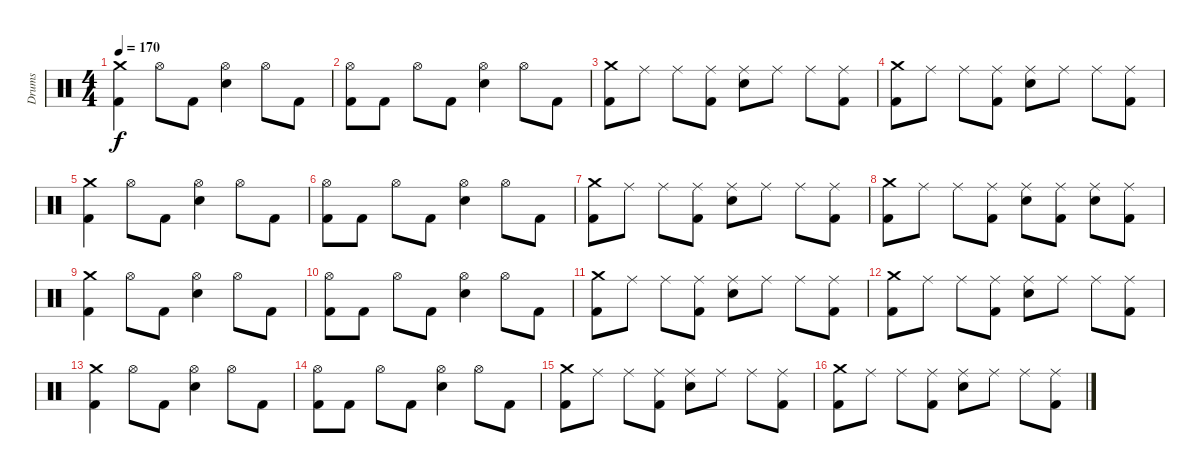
\track ("Drums" "Drums") {instrument percussion bank 255}
\staff {score}
\articulation defaults
\ts (4 4)
\tempo 170
\clef neutral
\ks c
("Crash medium (hit)" "Kick (hit) 2").4{dy f} "Hi-Hat (open)".8 "Kick (hit) 2".8 ("Hi-Hat (open)" "Electric Snare (hit)").4 "Hi-Hat (open)".8 "Kick (hit) 2".8 |
("Hi-Hat (open)" "Kick (hit) 2").8 "Kick (hit) 2".8 "Hi-Hat (open)".8 "Kick (hit) 2".8 ("Hi-Hat (open)" "Electric Snare (hit)").4 "Hi-Hat (open)".8 "Kick (hit) 2".8 |
("Crash medium (hit)" "Kick (hit) 2").8 "Ride (middle)".8 "Ride (middle)".8 ("Ride (middle)" "Kick (hit) 2").8 ("Ride (middle)" "Electric Snare (hit)").8 "Ride (middle)".8 "Ride (middle)".8 ("Ride (middle)" "Kick (hit) 2").8 |
("Crash medium (hit)" "Kick (hit) 2").8 "Ride (middle)".8 "Ride (middle)".8 ("Ride (middle)" "Kick (hit) 2").8 ("Ride (middle)" "Electric Snare (hit)").8 "Ride (middle)".8 "Ride (middle)".8 ("Ride (middle)" "Kick (hit) 2").8 |
("Crash medium (hit)" "Kick (hit) 2").4 "Hi-Hat (open)".8 "Kick (hit) 2".8 ("Hi-Hat (open)" "Electric Snare (hit)").4 "Hi-Hat (open)".8 "Kick (hit) 2".8 |
("Hi-Hat (open)" "Kick (hit) 2").8 "Kick (hit) 2".8 "Hi-Hat (open)".8 "Kick (hit) 2".8 ("Hi-Hat (open)" "Electric Snare (hit)").4 "Hi-Hat (open)".8 "Kick (hit) 2".8 |
("Crash medium (hit)" "Kick (hit) 2").8 "Ride (middle)".8 "Ride (middle)".8 ("Ride (middle)" "Kick (hit) 2").8 ("Ride (middle)" "Electric Snare (hit)").8 "Ride (middle)".8 "Ride (middle)".8 ("Ride (middle)" "Kick (hit) 2").8 |
("Crash medium (hit)" "Kick (hit) 2").8 "Ride (middle)".8 "Ride (middle)".8 ("Ride (middle)" "Kick (hit) 2").8 ("Ride (middle)" "Electric Snare (hit)").8 ("Ride (middle)" "Kick (hit) 2").8 ("Ride (middle)" "Electric Snare (hit)").8 ("Ride (middle)" "Kick (hit) 2").8 |
("Crash medium (hit)" "Kick (hit) 2").4 "Hi-Hat (open)".8 "Kick (hit) 2".8 ("Hi-Hat (open)" "Electric Snare (hit)").4 "Hi-Hat (open)".8 "Kick (hit) 2".8 |
("Hi-Hat (open)" "Kick (hit) 2").8 "Kick (hit) 2".8 "Hi-Hat (open)".8 "Kick (hit) 2".8 ("Hi-Hat (open)" "Electric Snare (hit)").4 "Hi-Hat (open)".8 "Kick (hit) 2".8 |
("Crash medium (hit)" "Kick (hit) 2").8 "Ride (middle)".8 "Ride (middle)".8 ("Ride (middle)" "Kick (hit) 2").8 ("Ride (middle)" "Electric Snare (hit)").8 "Ride (middle)".8 "Ride (middle)".8 ("Ride (middle)" "Kick (hit) 2").8 |
("Crash medium (hit)" "Kick (hit) 2").8 "Ride (middle)".8 "Ride (middle)".8 ("Ride (middle)" "Kick (hit) 2").8 ("Ride (middle)" "Electric Snare (hit)").8 "Ride (middle)".8 "Ride (middle)".8 ("Ride (middle)" "Kick (hit) 2").8 |
("Crash medium (hit)" "Kick (hit) 2").4 "Hi-Hat (open)".8 "Kick (hit) 2".8 ("Hi-Hat (open)" "Electric Snare (hit)").4 "Hi-Hat (open)".8 "Kick (hit) 2".8 |
("Hi-Hat (open)" "Kick (hit) 2").8 "Kick (hit) 2".8 "Hi-Hat (open)".8 "Kick (hit) 2".8 ("Hi-Hat (open)" "Electric Snare (hit)").4 "Hi-Hat (open)".8 "Kick (hit) 2".8 |
("Crash medium (hit)" "Kick (hit) 2").8 "Ride (middle)".8 "Ride (middle)".8 ("Ride (middle)" "Kick (hit) 2").8 ("Ride (middle)" "Electric Snare (hit)").8 "Ride (middle)".8 "Ride (middle)".8 ("Ride (middle)" "Kick (hit) 2").8 |
("Crash medium (hit)" "Kick (hit) 2").8 "Ride (middle)".8 "Ride (middle)".8 ("Ride (middle)" "Kick (hit) 2").8 ("Ride (middle)" "Electric Snare (hit)").8 "Ride (middle)".8 "Ride (middle)".8 ("Ride (middle)" "Kick (hit) 2").8
